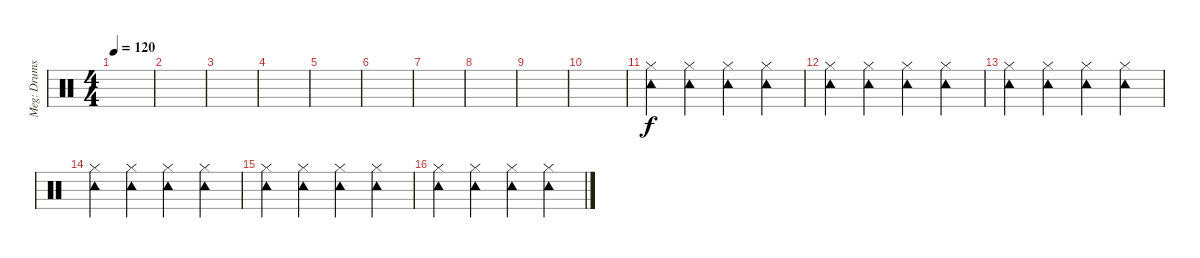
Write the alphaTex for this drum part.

\track ("Meg: Drums" "Meg: Drums") {instrument percussion}
\staff {score}
\articulation defaults
\ts (4 4)
\tempo 120
\clef neutral
\ks c
|
|
|
|
|
|
|
|
|
|
("Tambourine (hit)" "Hi-Hat (closed)").4 ("Tambourine (hit)" "Hi-Hat (closed)").4 ("Tambourine (hit)" "Hi-Hat (closed)").4 ("Tambourine (hit)" "Hi-Hat (closed)").4 |
("Tambourine (hit)" "Hi-Hat (closed)").4 ("Tambourine (hit)" "Hi-Hat (closed)").4 ("Tambourine (hit)" "Hi-Hat (closed)").4 ("Tambourine (hit)" "Hi-Hat (closed)").4 |
("Tambourine (hit)" "Hi-Hat (closed)").4 ("Tambourine (hit)" "Hi-Hat (closed)").4 ("Tambourine (hit)" "Hi-Hat (closed)").4 ("Tambourine (hit)" "Hi-Hat (closed)").4 |
("Tambourine (hit)" "Hi-Hat (closed)").4 ("Tambourine (hit)" "Hi-Hat (closed)").4 ("Tambourine (hit)" "Hi-Hat (closed)").4 ("Tambourine (hit)" "Hi-Hat (closed)").4 |
("Tambourine (hit)" "Hi-Hat (closed)").4 ("Tambourine (hit)" "Hi-Hat (closed)").4 ("Tambourine (hit)" "Hi-Hat (closed)").4 ("Tambourine (hit)" "Hi-Hat (closed)").4 |
("Tambourine (hit)" "Hi-Hat (closed)").4 ("Tambourine (hit)" "Hi-Hat (closed)").4 ("Tambourine (hit)" "Hi-Hat (closed)").4 ("Tambourine (hit)" "Hi-Hat (closed)").4
